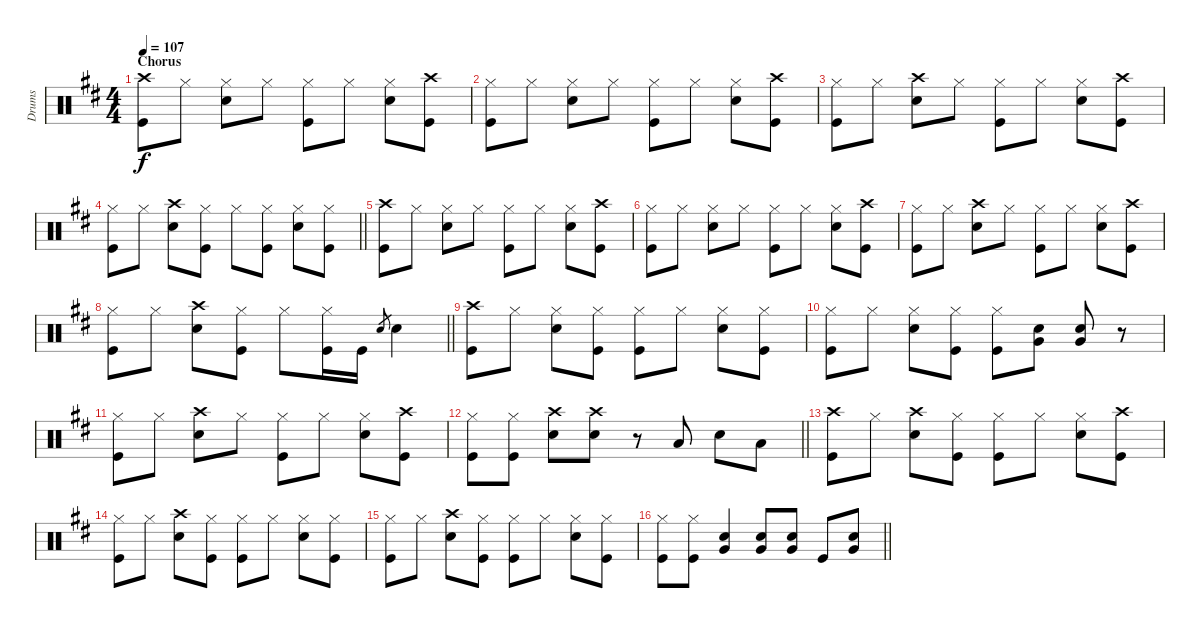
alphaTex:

\track ("Drums" "Drums") {instrument percussion}
\staff {score}
\articulation defaults
\ts (4 4)
\section ("" "Chorus")
\tempo 107
\clef neutral
\ks d
("Crash high (hit)" "Kick (hit)").8{dy f} "Hi-Hat (closed)".8 ("Hi-Hat (closed)" "Snare (hit) 2").8 "Hi-Hat (closed)".8 ("Hi-Hat (closed)" "Kick (hit)").8 "Hi-Hat (closed)".8 ("Hi-Hat (closed)" "Snare (hit) 2").8 ("Crash high (hit)" "Kick (hit)").8 |
("Hi-Hat (closed)" "Kick (hit)").8 "Hi-Hat (closed)".8 ("Hi-Hat (closed)" "Snare (hit) 2").8 "Hi-Hat (closed)".8 ("Hi-Hat (closed)" "Kick (hit)").8 "Hi-Hat (closed)".8 ("Hi-Hat (closed)" "Snare (hit) 2").8 ("Crash high (hit)" "Kick (hit)").8 |
("Hi-Hat (closed)" "Kick (hit)").8 "Hi-Hat (closed)".8 ("Crash high (hit)" "Snare (hit) 2").8 "Hi-Hat (closed)".8 ("Hi-Hat (closed)" "Kick (hit)").8 "Hi-Hat (closed)".8 ("Hi-Hat (closed)" "Snare (hit) 2").8 ("Crash high (hit)" "Kick (hit)").8 |
\barLineRight lightlight
("Hi-Hat (closed)" "Kick (hit)").8 "Hi-Hat (closed)".8 ("Crash high (hit)" "Snare (hit) 2").8 ("Hi-Hat (closed)" "Kick (hit)").8 "Hi-Hat (closed)".8 ("Hi-Hat (closed)" "Kick (hit)").8 ("Hi-Hat (closed)" "Snare (hit) 2").8 ("Hi-Hat (closed)" "Kick (hit)").8 |
("Crash high (hit)" "Kick (hit)").8 "Hi-Hat (closed)".8 ("Hi-Hat (closed)" "Snare (hit) 2").8 "Hi-Hat (closed)".8 ("Hi-Hat (closed)" "Kick (hit)").8 "Hi-Hat (closed)".8 ("Hi-Hat (closed)" "Snare (hit) 2").8 ("Crash high (hit)" "Kick (hit)").8 |
("Hi-Hat (closed)" "Kick (hit)").8 "Hi-Hat (closed)".8 ("Hi-Hat (closed)" "Snare (hit) 2").8 "Hi-Hat (closed)".8 ("Hi-Hat (closed)" "Kick (hit)").8 "Hi-Hat (closed)".8 ("Hi-Hat (closed)" "Snare (hit) 2").8 ("Crash high (hit)" "Kick (hit)").8 |
("Hi-Hat (closed)" "Kick (hit)").8 "Hi-Hat (closed)".8 ("Crash high (hit)" "Snare (hit) 2").8 "Hi-Hat (closed)".8 ("Hi-Hat (closed)" "Kick (hit)").8 "Hi-Hat (closed)".8 ("Hi-Hat (closed)" "Snare (hit) 2").8 ("Crash high (hit)" "Kick (hit)").8 |
\barLineRight lightlight
("Hi-Hat (closed)" "Kick (hit)").8 "Hi-Hat (closed)".8 ("Crash high (hit)" "Snare (hit) 2").8 ("Hi-Hat (closed)" "Kick (hit)").8 "Hi-Hat (closed)".8 ("Hi-Hat (closed)" "Kick (hit)").16 "Kick (hit)".16 "Snare (hit) 2".8{gr} "Snare (hit) 2".4 |
("Crash high (hit)" "Kick (hit)").8 "Hi-Hat (closed)".8 ("Hi-Hat (closed)" "Snare (hit) 2").8 ("Hi-Hat (closed)" "Kick (hit)").8 ("Hi-Hat (closed)" "Kick (hit)").8 "Hi-Hat (closed)".8 ("Hi-Hat (closed)" "Snare (hit) 2").8 ("Hi-Hat (closed)" "Kick (hit)").8 |
("Hi-Hat (closed)" "Kick (hit)").8 "Hi-Hat (closed)".8 ("Hi-Hat (closed)" "Snare (hit) 2").8 ("Hi-Hat (closed)" "Kick (hit)").8 ("Hi-Hat (closed)" "Kick (hit)").8 ("Snare (hit) 2" "Very Low Tom (hit)").8 ("Snare (hit) 2" "Very Low Tom (hit)").8 r.8 |
("Hi-Hat (closed)" "Kick (hit)").8 "Hi-Hat (closed)".8 ("Crash high (hit)" "Snare (hit) 2").8 "Hi-Hat (closed)".8 ("Hi-Hat (closed)" "Kick (hit)").8 "Hi-Hat (closed)".8 ("Hi-Hat (closed)" "Snare (hit) 2").8 ("Crash high (hit)" "Kick (hit)").8 |
\barLineRight lightlight
("Hi-Hat (closed)" "Kick (hit)").8 ("Hi-Hat (closed)" "Kick (hit)").8 ("Crash high (hit)" "Snare (hit) 2").8 ("Crash high (hit)" "Snare (hit) 2").8 r.8 "Low Tom (hit)".8 "Snare (hit) 2".8 "Low Tom (hit)".8 |
("Crash high (hit)" "Kick (hit)").8 "Hi-Hat (closed)".8 ("Crash high (hit)" "Snare (hit) 2").8 ("Hi-Hat (closed)" "Kick (hit)").8 ("Hi-Hat (closed)" "Kick (hit)").8 "Hi-Hat (closed)".8 ("Hi-Hat (closed)" "Snare (hit) 2").8 ("Crash high (hit)" "Kick (hit)").8 |
("Hi-Hat (closed)" "Kick (hit)").8 "Hi-Hat (closed)".8 ("Crash high (hit)" "Snare (hit) 2").8 ("Hi-Hat (closed)" "Kick (hit)").8 ("Hi-Hat (closed)" "Kick (hit)").8 "Hi-Hat (closed)".8 ("Hi-Hat (closed)" "Snare (hit) 2").8 ("Hi-Hat (closed)" "Kick (hit)").8 |
("Hi-Hat (closed)" "Kick (hit)").8 "Hi-Hat (closed)".8 ("Crash high (hit)" "Snare (hit) 2").8 ("Hi-Hat (closed)" "Kick (hit)").8 ("Hi-Hat (closed)" "Kick (hit)").8 "Hi-Hat (closed)".8 ("Hi-Hat (closed)" "Snare (hit) 2").8 ("Hi-Hat (closed)" "Kick (hit)").8 |
\barLineRight lightlight
("Hi-Hat (closed)" "Kick (hit)").8 ("Hi-Hat (closed)" "Kick (hit)").8 ("Snare (hit) 2" "Very Low Tom (hit)").4 ("Snare (hit) 2" "Very Low Tom (hit)").8 ("Snare (hit) 2" "Very Low Tom (hit)").8 "Kick (hit)".8 ("Snare (hit) 2" "Very Low Tom (hit)").8
